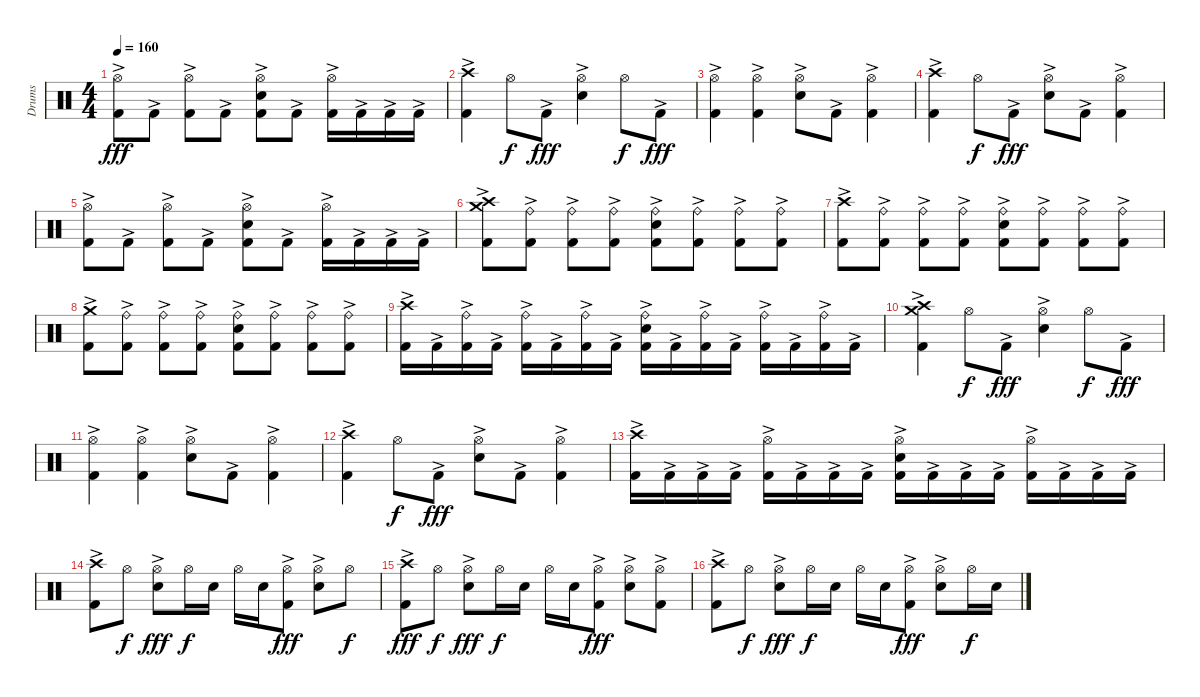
\track ("Drums" "Drums") {instrument percussion}
\staff {score}
\articulation defaults
\ts (4 4)
\tempo 160
\clef neutral
\ks c
("Hi-Hat (open)" "Kick (hit) 2"{ac}).8{dy fff} "Kick (hit) 2"{ac}.8 ("Hi-Hat (open)" "Kick (hit) 2"{ac}).8 "Kick (hit) 2"{ac}.8 ("Hi-Hat (open)" "Snare (hit) 2"{ac} "Kick (hit) 2"{ac}).8 "Kick (hit) 2"{ac}.8 ("Hi-Hat (open)" "Kick (hit) 2"{ac}).16 "Kick (hit) 2"{ac}.16 "Kick (hit) 2"{ac}.16 "Kick (hit) 2"{ac}.16 |
("Crash high (hit)" "Kick (hit) 2"{ac}).4 "Hi-Hat (open)".8{dy f} "Kick (hit) 2"{ac}.8{dy fff} ("Hi-Hat (open)" "Snare (hit) 2"{ac}).4 "Hi-Hat (open)".8{dy f} "Kick (hit) 2"{ac}.8{dy fff} |
("Hi-Hat (open)" "Kick (hit) 2"{ac}).4 ("Hi-Hat (open)" "Kick (hit) 2"{ac}).4 ("Hi-Hat (open)" "Snare (hit) 2"{ac}).8 "Kick (hit) 2"{ac}.8 ("Hi-Hat (open)" "Kick (hit) 2"{ac}).4 |
("Crash high (hit)" "Kick (hit) 2"{ac}).4 "Hi-Hat (open)".8{dy f} "Kick (hit) 2"{ac}.8{dy fff} ("Hi-Hat (open)" "Snare (hit) 2"{ac}).8 "Kick (hit) 2"{ac}.8 ("Hi-Hat (open)" "Kick (hit) 2"{ac}).4 |
("Hi-Hat (open)" "Kick (hit) 2"{ac}).8 "Kick (hit) 2"{ac}.8 ("Hi-Hat (open)" "Kick (hit) 2"{ac}).8 "Kick (hit) 2"{ac}.8 ("Hi-Hat (open)" "Snare (hit) 2"{ac} "Kick (hit) 2"{ac}).8 "Kick (hit) 2"{ac}.8 ("Hi-Hat (open)" "Kick (hit) 2"{ac}).16 "Kick (hit) 2"{ac}.16 "Kick (hit) 2"{ac}.16 "Kick (hit) 2"{ac}.16 |
("Crash high (hit)" "Crash medium (hit)" "Kick (hit) 2"{ac}).8 ("Ride (bell)" "Kick (hit) 2"{ac}).8 ("Ride (bell)" "Kick (hit) 2"{ac}).8 ("Ride (bell)" "Kick (hit) 2"{ac}).8 ("Ride (bell)" "Snare (hit) 2"{ac} "Kick (hit) 2"{ac}).8 ("Ride (bell)" "Kick (hit) 2"{ac}).8 ("Ride (bell)" "Kick (hit) 2"{ac}).8 ("Ride (bell)" "Kick (hit) 2"{ac}).8 |
("Crash high (hit)" "Kick (hit) 2"{ac}).8 ("Ride (bell)" "Kick (hit) 2"{ac}).8 ("Ride (bell)" "Kick (hit) 2"{ac}).8 ("Ride (bell)" "Kick (hit) 2"{ac}).8 ("Ride (bell)" "Snare (hit) 2"{ac} "Kick (hit) 2"{ac}).8 ("Ride (bell)" "Kick (hit) 2"{ac}).8 ("Ride (bell)" "Kick (hit) 2"{ac}).8 ("Ride (bell)" "Kick (hit) 2"{ac}).8 |
("Crash medium (hit)" "Kick (hit) 2"{ac}).8 ("Ride (bell)" "Kick (hit) 2"{ac}).8 ("Ride (bell)" "Kick (hit) 2"{ac}).8 ("Ride (bell)" "Kick (hit) 2"{ac}).8 ("Ride (bell)" "Snare (hit) 2"{ac} "Kick (hit) 2"{ac}).8 ("Ride (bell)" "Kick (hit) 2"{ac}).8 ("Ride (bell)" "Kick (hit) 2"{ac}).8 ("Ride (bell)" "Kick (hit) 2"{ac}).8 |
("Crash high (hit)"{ac} "Kick (hit) 2"{ac}).16 "Kick (hit) 2"{ac}.16 ("Ride (bell)" "Kick (hit) 2"{ac}).16 "Kick (hit) 2"{ac}.16 ("Ride (bell)"{ac} "Kick (hit) 2"{ac}).16 "Kick (hit) 2"{ac}.16 ("Ride (bell)" "Kick (hit) 2"{ac}).16 "Kick (hit) 2"{ac}.16 ("Ride (bell)"{ac} "Snare (hit) 2"{ac} "Kick (hit) 2"{ac}).16 "Kick (hit) 2"{ac}.16 ("Ride (bell)" "Kick (hit) 2"{ac}).16 "Kick (hit) 2"{ac}.16 ("Ride (bell)"{ac} "Kick (hit) 2"{ac}).16 "Kick (hit) 2"{ac}.16 ("Ride (bell)" "Kick (hit) 2"{ac}).16 "Kick (hit) 2"{ac}.16 |
("Crash high (hit)" "Crash medium (hit)" "Kick (hit) 2"{ac}).4 "Hi-Hat (open)".8{dy f} "Kick (hit) 2"{ac}.8{dy fff} ("Hi-Hat (open)" "Snare (hit) 2"{ac}).4 "Hi-Hat (open)".8{dy f} "Kick (hit) 2"{ac}.8{dy fff} |
("Hi-Hat (open)" "Kick (hit) 2"{ac}).4 ("Hi-Hat (open)" "Kick (hit) 2"{ac}).4 ("Hi-Hat (open)" "Snare (hit) 2"{ac}).8 "Kick (hit) 2"{ac}.8 ("Hi-Hat (open)" "Kick (hit) 2"{ac}).4 |
("Crash high (hit)" "Kick (hit) 2"{ac}).4 "Hi-Hat (open)".8{dy f} "Kick (hit) 2"{ac}.8{dy fff} ("Hi-Hat (open)" "Snare (hit) 2"{ac}).8 "Kick (hit) 2"{ac}.8 ("Hi-Hat (open)" "Kick (hit) 2"{ac}).4 |
("Crash high (hit)" "Kick (hit) 2"{ac}).16 "Kick (hit) 2"{ac}.16 "Kick (hit) 2"{ac}.16 "Kick (hit) 2"{ac}.16 ("Hi-Hat (open)" "Kick (hit) 2"{ac}).16 "Kick (hit) 2"{ac}.16 "Kick (hit) 2"{ac}.16 "Kick (hit) 2"{ac}.16 ("Hi-Hat (open)" "Snare (hit) 2"{ac} "Kick (hit) 2"{ac}).16 "Kick (hit) 2"{ac}.16 "Kick (hit) 2"{ac}.16 "Kick (hit) 2"{ac}.16 ("Hi-Hat (open)" "Kick (hit) 2"{ac}).16 "Kick (hit) 2"{ac}.16 "Kick (hit) 2"{ac}.16 "Kick (hit) 2"{ac}.16 |
("Crash high (hit)" "Kick (hit) 2"{ac}).8 "Hi-Hat (open)".8{dy f} ("Hi-Hat (open)" "Snare (hit) 2"{ac}).8{dy fff} "Hi-Hat (open)".16{dy f} "Snare (hit) 2".16 "Hi-Hat (open)".16 "Snare (hit) 2".16 ("Hi-Hat (open)" "Kick (hit) 2"{ac}).8{dy fff} ("Hi-Hat (open)" "Snare (hit) 2"{ac}).8 "Hi-Hat (open)".8{dy f} |
("Crash high (hit)" "Kick (hit) 2"{ac}).8{dy fff} "Hi-Hat (open)".8{dy f} ("Hi-Hat (open)" "Snare (hit) 2"{ac}).8{dy fff} "Hi-Hat (open)".16{dy f} "Snare (hit) 2".16 "Hi-Hat (open)".16 "Snare (hit) 2".16 ("Hi-Hat (open)" "Kick (hit) 2"{ac}).8{dy fff} ("Hi-Hat (open)" "Snare (hit) 2"{ac}).8 ("Hi-Hat (open)" "Kick (hit) 2"{ac}).8 |
("Crash high (hit)" "Kick (hit) 2"{ac}).8 "Hi-Hat (open)".8{dy f} ("Hi-Hat (open)" "Snare (hit) 2"{ac}).8{dy fff} "Hi-Hat (open)".16{dy f} "Snare (hit) 2".16 "Hi-Hat (open)".16 "Snare (hit) 2".16 ("Hi-Hat (open)" "Kick (hit) 2"{ac}).8{dy fff} ("Hi-Hat (open)" "Snare (hit) 2"{ac}).8 "Hi-Hat (open)".16{dy f} "Snare (hit) 2".16
